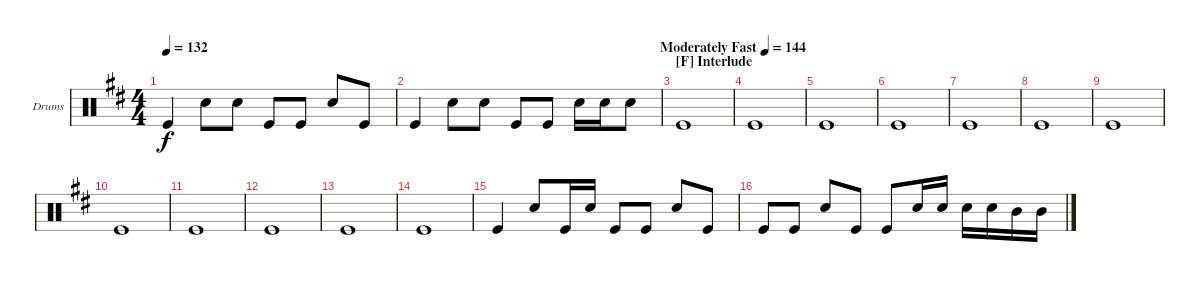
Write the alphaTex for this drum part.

\defaultSystemsLayout 4
\bracketExtendMode groupsimilarinstruments
\firstSystemTrackNameOrientation horizontal
\otherSystemsTrackNameOrientation horizontal
\track ("Drumkit" "Drums") {instrument percussion}
\staff {score}
\articulation defaults
\ts (4 4)
\tempo 132
\clef neutral
\scale
1.05044
\ks d "Kick (hit)".4{dy f} "Snare (hit) 2".8 "Snare (hit) 2".8 "Kick (hit)".8 "Kick (hit)".8 "Snare (hit) 2".8 "Kick (hit)".8
|
\tempo (144 "Moderately Fast" 0.99375)
\scale
0.949559 "Kick (hit)".4 "Snare (hit) 2".8 "Snare (hit) 2".8 "Kick (hit)".8 "Kick (hit)".8 "Snare (hit) 2".16 "Snare (hit) 2".16 "Snare (hit) 2".8 |
\section ("F" "Interlude")
\scale
1.05044 "Kick (hit)".1 |
\scale
0.949559 "Kick (hit)".1 |
\scale
1.05044 "Kick (hit)".1 |
\scale
0.949559 "Kick (hit)".1 |
\scale
1.05044 "Kick (hit)".1 |
\scale
0.949559 "Kick (hit)".1 |
\scale
1.05044 "Kick (hit)".1 |
\scale
0.949559 "Kick (hit)".1 |
\scale
1.05044 "Kick (hit)".1 |
\scale
0.949559 "Kick (hit)".1 |
\scale
1.05044 "Kick (hit)".1 |
\scale
0.949559 "Kick (hit)".1 |
\scale
1.05044 "Kick (hit)".4 "Snare (hit) 2".8 "Kick (hit)".16 "Snare (hit) 2".16 "Kick (hit)".8 "Kick (hit)".8 "Snare (hit) 2".8 "Kick (hit)".8 |
\scale
0.949559 "Kick (hit)".8 "Kick (hit)".8 "Snare (hit) 2".8 "Kick (hit)".8 "Kick (hit)".8 "Snare (hit) 2".16 "Snare (hit) 2".16 "Snare (hit) 2".16 "Snare (hit) 2".16 "Mid Tom (hit)".16 "Mid Tom (hit)".16
